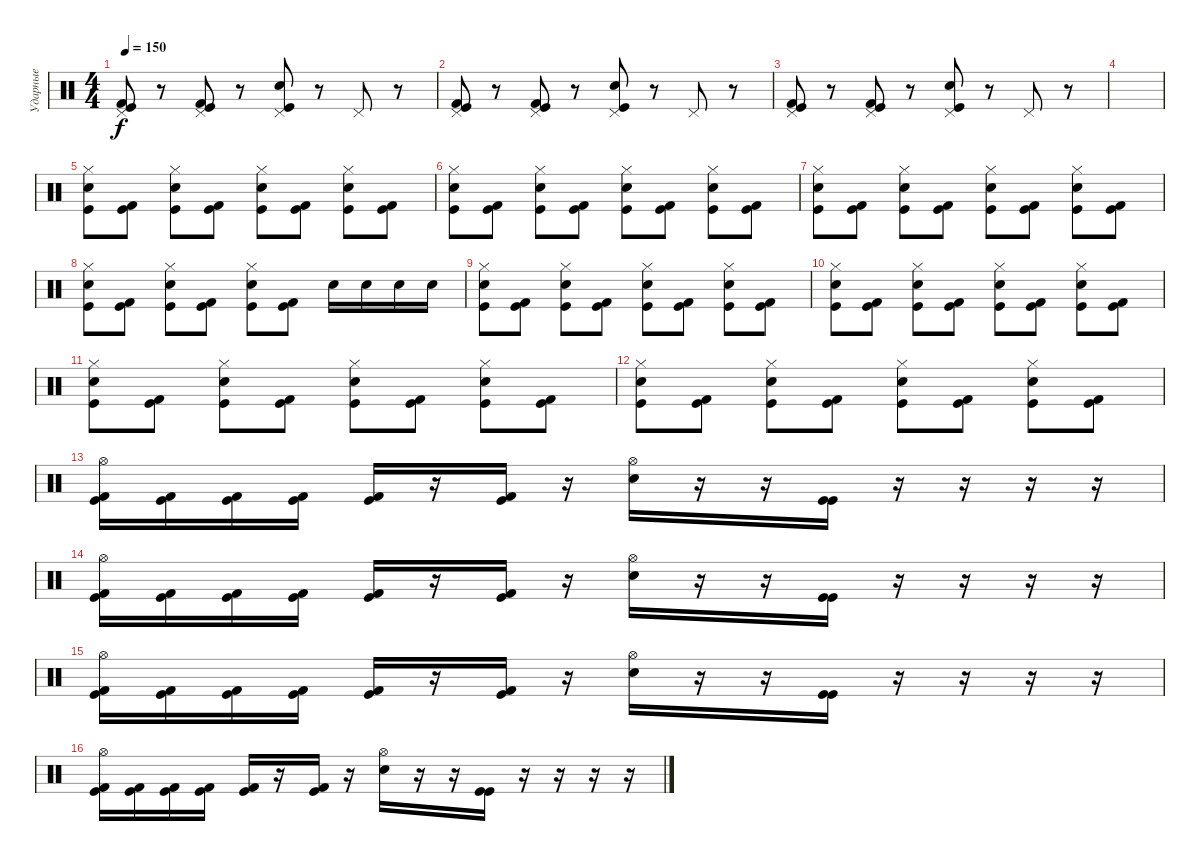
\track ("Ударные" "Ударные") {instrument percussion}
\staff {score}
\articulation defaults
\ts (4 4)
\tempo 150
\clef neutral
\ks c
("Pedal Hi-Hat (hit)" "Kick (hit)" "Kick (hit) 2").8{dy f} r.8 ("Pedal Hi-Hat (hit)" "Kick (hit)" "Kick (hit) 2").8 r.8 ("Pedal Hi-Hat (hit)" "Electric Snare (hit)" "Kick (hit)").8 r.8 "Pedal Hi-Hat (hit)".8 r.8 |
("Pedal Hi-Hat (hit)" "Kick (hit)" "Kick (hit) 2").8 r.8 ("Pedal Hi-Hat (hit)" "Kick (hit)" "Kick (hit) 2").8 r.8 ("Pedal Hi-Hat (hit)" "Electric Snare (hit)" "Kick (hit)").8 r.8 "Pedal Hi-Hat (hit)".8 r.8 |
("Pedal Hi-Hat (hit)" "Kick (hit)" "Kick (hit) 2").8 r.8 ("Pedal Hi-Hat (hit)" "Kick (hit)" "Kick (hit) 2").8 r.8 ("Pedal Hi-Hat (hit)" "Electric Snare (hit)" "Kick (hit)").8 r.8 "Pedal Hi-Hat (hit)".8 r.8 |
|
("Hi-Hat (closed)" "Electric Snare (hit)" "Kick (hit)").8 ("Kick (hit)" "Kick (hit) 2").8 ("Hi-Hat (closed)" "Electric Snare (hit)" "Kick (hit)").8 ("Kick (hit)" "Kick (hit) 2").8 ("Hi-Hat (closed)" "Electric Snare (hit)" "Kick (hit)").8 ("Kick (hit)" "Kick (hit) 2").8 ("Hi-Hat (closed)" "Electric Snare (hit)" "Kick (hit)").8 ("Kick (hit)" "Kick (hit) 2").8 |
("Hi-Hat (closed)" "Electric Snare (hit)" "Kick (hit)").8 ("Kick (hit)" "Kick (hit) 2").8 ("Hi-Hat (closed)" "Electric Snare (hit)" "Kick (hit)").8 ("Kick (hit)" "Kick (hit) 2").8 ("Hi-Hat (closed)" "Electric Snare (hit)" "Kick (hit)").8 ("Kick (hit)" "Kick (hit) 2").8 ("Hi-Hat (closed)" "Electric Snare (hit)" "Kick (hit)").8 ("Kick (hit)" "Kick (hit) 2").8 |
("Hi-Hat (closed)" "Electric Snare (hit)" "Kick (hit)").8 ("Kick (hit)" "Kick (hit) 2").8 ("Hi-Hat (closed)" "Electric Snare (hit)" "Kick (hit)").8 ("Kick (hit)" "Kick (hit) 2").8 ("Hi-Hat (closed)" "Electric Snare (hit)" "Kick (hit)").8 ("Kick (hit)" "Kick (hit) 2").8 ("Hi-Hat (closed)" "Electric Snare (hit)" "Kick (hit)").8 ("Kick (hit)" "Kick (hit) 2").8 |
("Hi-Hat (closed)" "Electric Snare (hit)" "Kick (hit)").8 ("Kick (hit)" "Kick (hit) 2").8 ("Hi-Hat (closed)" "Electric Snare (hit)" "Kick (hit)").8 ("Kick (hit)" "Kick (hit) 2").8 ("Hi-Hat (closed)" "Electric Snare (hit)" "Kick (hit)").8 ("Kick (hit)" "Kick (hit) 2").8 "Electric Snare (hit)".16 "Electric Snare (hit)".16 "Electric Snare (hit)".16 "Electric Snare (hit)".16 |
("Hi-Hat (closed)" "Electric Snare (hit)" "Kick (hit)").8 ("Kick (hit)" "Kick (hit) 2").8 ("Hi-Hat (closed)" "Electric Snare (hit)" "Kick (hit)").8 ("Kick (hit)" "Kick (hit) 2").8 ("Hi-Hat (closed)" "Electric Snare (hit)" "Kick (hit)").8 ("Kick (hit)" "Kick (hit) 2").8 ("Hi-Hat (closed)" "Electric Snare (hit)" "Kick (hit)").8 ("Kick (hit)" "Kick (hit) 2").8 |
("Hi-Hat (closed)" "Electric Snare (hit)" "Kick (hit)").8 ("Kick (hit)" "Kick (hit) 2").8 ("Hi-Hat (closed)" "Electric Snare (hit)" "Kick (hit)").8 ("Kick (hit)" "Kick (hit) 2").8 ("Hi-Hat (closed)" "Electric Snare (hit)" "Kick (hit)").8 ("Kick (hit)" "Kick (hit) 2").8 ("Hi-Hat (closed)" "Electric Snare (hit)" "Kick (hit)").8 ("Kick (hit)" "Kick (hit) 2").8 |
("Hi-Hat (closed)" "Electric Snare (hit)" "Kick (hit)").8 ("Kick (hit)" "Kick (hit) 2").8 ("Hi-Hat (closed)" "Electric Snare (hit)" "Kick (hit)").8 ("Kick (hit)" "Kick (hit) 2").8 ("Hi-Hat (closed)" "Electric Snare (hit)" "Kick (hit)").8 ("Kick (hit)" "Kick (hit) 2").8 ("Hi-Hat (closed)" "Electric Snare (hit)" "Kick (hit)").8 ("Kick (hit)" "Kick (hit) 2").8 |
("Hi-Hat (closed)" "Electric Snare (hit)" "Kick (hit)").8 ("Kick (hit)" "Kick (hit) 2").8 ("Hi-Hat (closed)" "Electric Snare (hit)" "Kick (hit)").8 ("Kick (hit)" "Kick (hit) 2").8 ("Hi-Hat (closed)" "Electric Snare (hit)" "Kick (hit)").8 ("Kick (hit)" "Kick (hit) 2").8 ("Hi-Hat (closed)" "Electric Snare (hit)" "Kick (hit)").8 ("Kick (hit)" "Kick (hit) 2").8 |
("Hi-Hat (open)" "Kick (hit)" "Kick (hit) 2").16 ("Kick (hit)" "Kick (hit) 2").16 ("Kick (hit)" "Kick (hit) 2").16 ("Kick (hit)" "Kick (hit) 2").16 ("Kick (hit)" "Kick (hit) 2").16 r.16 ("Kick (hit)" "Kick (hit) 2").16 r.16 ("Hi-Hat (open)" "Electric Snare (hit)").16 r.16 r.16 ("Kick (hit)" "Kick (hit)").16 r.16 r.16 r.16 r.16 |
("Hi-Hat (open)" "Kick (hit)" "Kick (hit) 2").16 ("Kick (hit)" "Kick (hit) 2").16 ("Kick (hit)" "Kick (hit) 2").16 ("Kick (hit)" "Kick (hit) 2").16 ("Kick (hit)" "Kick (hit) 2").16 r.16 ("Kick (hit)" "Kick (hit) 2").16 r.16 ("Hi-Hat (open)" "Electric Snare (hit)").16 r.16 r.16 ("Kick (hit)" "Kick (hit)").16 r.16 r.16 r.16 r.16 |
("Hi-Hat (open)" "Kick (hit)" "Kick (hit) 2").16 ("Kick (hit)" "Kick (hit) 2").16 ("Kick (hit)" "Kick (hit) 2").16 ("Kick (hit)" "Kick (hit) 2").16 ("Kick (hit)" "Kick (hit) 2").16 r.16 ("Kick (hit)" "Kick (hit) 2").16 r.16 ("Hi-Hat (open)" "Electric Snare (hit)").16 r.16 r.16 ("Kick (hit)" "Kick (hit)").16 r.16 r.16 r.16 r.16 |
("Hi-Hat (open)" "Kick (hit)" "Kick (hit) 2").16 ("Kick (hit)" "Kick (hit) 2").16 ("Kick (hit)" "Kick (hit) 2").16 ("Kick (hit)" "Kick (hit) 2").16 ("Kick (hit)" "Kick (hit) 2").16 r.16 ("Kick (hit)" "Kick (hit) 2").16 r.16 ("Hi-Hat (open)" "Electric Snare (hit)").16 r.16 r.16 ("Kick (hit)" "Kick (hit)").16 r.16 r.16 r.16 r.16
